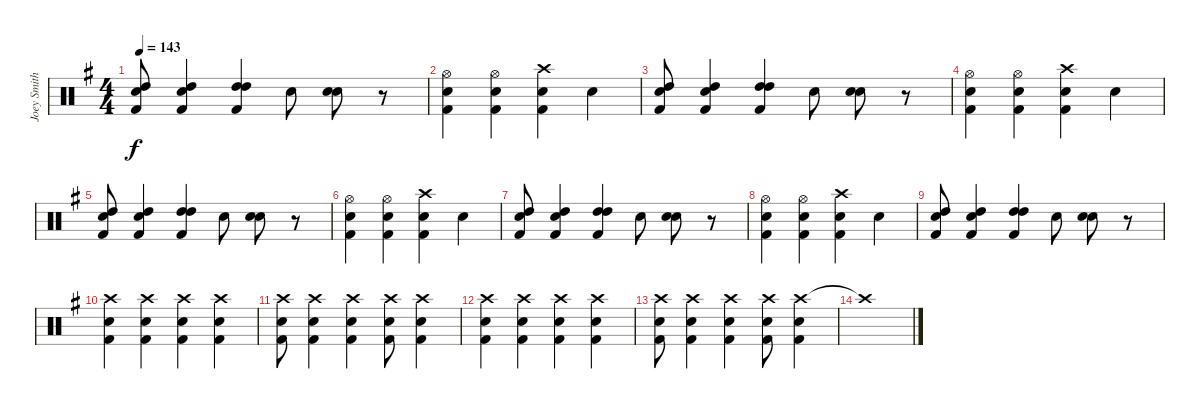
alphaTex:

\track ("Joey Smith" "Joey Smith") {instrument percussion}
\staff {score}
\articulation defaults
\ts (4 4)
\tempo 143
\clef neutral
\ks g
("Snare (hit) 2" "High Tom (hit)" "Kick (hit) 2").8{dy f} ("Snare (hit) 2" "High Tom (hit)" "Kick (hit) 2").4 ("High Tom (hit)" "High Tom (hit)" "Kick (hit) 2").4 "Snare (hit) 2".8 ("Snare (hit) 2" "Snare (hit) 2").8{bd 240} r.8 |
("Hi-Hat (open)" "Snare (hit) 2" "Kick (hit) 2").4 ("Hi-Hat (open)" "Snare (hit) 2" "Kick (hit) 2").4 ("Crash high (hit)" "Snare (hit) 2" "Kick (hit) 2").4 "Snare (hit) 2".4 |
("Snare (hit) 2" "High Tom (hit)" "Kick (hit) 2").8 ("Snare (hit) 2" "High Tom (hit)" "Kick (hit) 2").4 ("High Tom (hit)" "High Tom (hit)" "Kick (hit) 2").4 "Snare (hit) 2".8 ("Snare (hit) 2" "Snare (hit) 2").8{bd 240} r.8 |
("Hi-Hat (open)" "Snare (hit) 2" "Kick (hit) 2").4 ("Hi-Hat (open)" "Snare (hit) 2" "Kick (hit) 2").4 ("Crash high (hit)" "Snare (hit) 2" "Kick (hit) 2").4 "Snare (hit) 2".4 |
("Snare (hit) 2" "High Tom (hit)" "Kick (hit) 2").8 ("Snare (hit) 2" "High Tom (hit)" "Kick (hit) 2").4 ("High Tom (hit)" "High Tom (hit)" "Kick (hit) 2").4 "Snare (hit) 2".8 ("Snare (hit) 2" "Snare (hit) 2").8{bd 240} r.8 |
("Hi-Hat (open)" "Snare (hit) 2" "Kick (hit) 2").4 ("Hi-Hat (open)" "Snare (hit) 2" "Kick (hit) 2").4 ("Crash high (hit)" "Snare (hit) 2" "Kick (hit) 2").4 "Snare (hit) 2".4 |
("Snare (hit) 2" "High Tom (hit)" "Kick (hit) 2").8 ("Snare (hit) 2" "High Tom (hit)" "Kick (hit) 2").4 ("High Tom (hit)" "High Tom (hit)" "Kick (hit) 2").4 "Snare (hit) 2".8 ("Snare (hit) 2" "Snare (hit) 2").8{bd 240} r.8 |
("Hi-Hat (open)" "Snare (hit) 2" "Kick (hit) 2").4 ("Hi-Hat (open)" "Snare (hit) 2" "Kick (hit) 2").4 ("Crash high (hit)" "Snare (hit) 2" "Kick (hit) 2").4 "Snare (hit) 2".4 |
("Snare (hit) 2" "High Tom (hit)" "Kick (hit) 2").8 ("Snare (hit) 2" "High Tom (hit)" "Kick (hit) 2").4 ("High Tom (hit)" "High Tom (hit)" "Kick (hit) 2").4 "Snare (hit) 2".8 ("Snare (hit) 2" "Snare (hit) 2").8{bd 240} r.8 |
("Crash high (hit)" "Snare (hit) 2" "Kick (hit) 2").4 ("Crash high (hit)" "Snare (hit) 2" "Kick (hit) 2").4 ("Crash high (hit)" "Snare (hit) 2" "Kick (hit) 2").4 ("Crash high (hit)" "Snare (hit) 2" "Kick (hit) 2").4 |
("Crash high (hit)" "Snare (hit) 2" "Kick (hit) 2").8 ("Crash high (hit)" "Snare (hit) 2" "Kick (hit) 2").4 ("Crash high (hit)" "Snare (hit) 2" "Kick (hit) 2").4 ("Crash high (hit)" "Snare (hit) 2" "Kick (hit) 2").8 ("Crash high (hit)" "Snare (hit) 2" "Kick (hit) 2").4 |
("Crash high (hit)" "Snare (hit) 2" "Kick (hit) 2").4 ("Crash high (hit)" "Snare (hit) 2" "Kick (hit) 2").4 ("Crash high (hit)" "Snare (hit) 2" "Kick (hit) 2").4 ("Crash high (hit)" "Snare (hit) 2" "Kick (hit) 2").4 |
("Crash high (hit)" "Snare (hit) 2" "Kick (hit) 2").8 ("Crash high (hit)" "Snare (hit) 2" "Kick (hit) 2").4 ("Crash high (hit)" "Snare (hit) 2" "Kick (hit) 2").4 ("Crash high (hit)" "Snare (hit) 2" "Kick (hit) 2").8 ("Crash high (hit)" "Snare (hit) 2" "Kick (hit) 2").4 |
"Crash high (hit)"{t}.1
